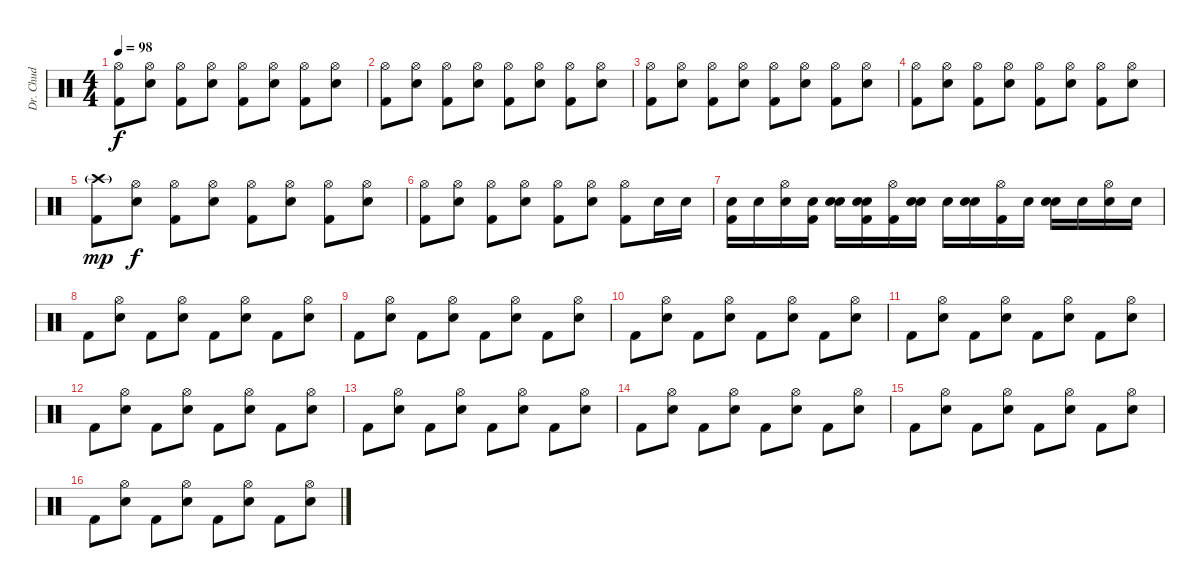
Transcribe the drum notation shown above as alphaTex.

\track ("Dr. Chud" "Dr. Chud") {instrument percussion}
\staff {score}
\articulation defaults
\ts (4 4)
\tempo 98
\clef neutral
\ks c
("Hi-Hat (open)" "Kick (hit) 2").8{dy f} ("Hi-Hat (open)" "Snare (hit) 2").8 ("Hi-Hat (open)" "Kick (hit) 2").8 ("Hi-Hat (open)" "Snare (hit) 2").8 ("Hi-Hat (open)" "Kick (hit) 2").8 ("Hi-Hat (open)" "Snare (hit) 2").8 ("Hi-Hat (open)" "Kick (hit) 2").8 ("Hi-Hat (open)" "Snare (hit) 2").8 |
("Hi-Hat (open)" "Kick (hit) 2").8 ("Hi-Hat (open)" "Snare (hit) 2").8 ("Hi-Hat (open)" "Kick (hit) 2").8 ("Hi-Hat (open)" "Snare (hit) 2").8 ("Hi-Hat (open)" "Kick (hit) 2").8 ("Hi-Hat (open)" "Snare (hit) 2").8 ("Hi-Hat (open)" "Kick (hit) 2").8 ("Hi-Hat (open)" "Snare (hit) 2").8 |
("Hi-Hat (open)" "Kick (hit) 2").8 ("Hi-Hat (open)" "Snare (hit) 2").8 ("Hi-Hat (open)" "Kick (hit) 2").8 ("Hi-Hat (open)" "Snare (hit) 2").8 ("Hi-Hat (open)" "Kick (hit) 2").8 ("Hi-Hat (open)" "Snare (hit) 2").8 ("Hi-Hat (open)" "Kick (hit) 2").8 ("Hi-Hat (open)" "Snare (hit) 2").8 |
("Hi-Hat (open)" "Kick (hit) 2").8 ("Hi-Hat (open)" "Snare (hit) 2").8 ("Hi-Hat (open)" "Kick (hit) 2").8 ("Hi-Hat (open)" "Snare (hit) 2").8 ("Hi-Hat (open)" "Kick (hit) 2").8 ("Hi-Hat (open)" "Snare (hit) 2").8 ("Hi-Hat (open)" "Kick (hit) 2").8 ("Hi-Hat (open)" "Snare (hit) 2").8 |
("Crash high (hit)"{g} "Kick (hit) 2").8{dy mp} ("Hi-Hat (open)" "Snare (hit) 2").8{dy f} ("Hi-Hat (open)" "Kick (hit) 2").8 ("Hi-Hat (open)" "Snare (hit) 2").8 ("Hi-Hat (open)" "Kick (hit) 2").8 ("Hi-Hat (open)" "Snare (hit) 2").8 ("Hi-Hat (open)" "Kick (hit) 2").8 ("Hi-Hat (open)" "Snare (hit) 2").8 |
("Hi-Hat (open)" "Kick (hit) 2").8 ("Hi-Hat (open)" "Snare (hit) 2").8 ("Hi-Hat (open)" "Kick (hit) 2").8 ("Hi-Hat (open)" "Snare (hit) 2").8 ("Hi-Hat (open)" "Kick (hit) 2").8 ("Hi-Hat (open)" "Snare (hit) 2").8 ("Hi-Hat (open)" "Kick (hit) 2").8 "Snare (hit) 2".16 "Snare (hit) 2".16 |
("Snare (hit)" "Kick (hit) 2").16 "Snare (hit)".16 ("Hi-Hat (open)" "Snare (hit) 2").16 ("Snare (hit)" "Kick (hit) 2").16 ("Snare (hit)" "Snare (hit) 2").16 ("Snare (hit)" "Snare (hit) 2" "Kick (hit) 2").16 ("Hi-Hat (open)" "Kick (hit) 2").16 ("Snare (hit)" "Snare (hit) 2").16 "Snare (hit)".16 ("Snare (hit)" "Snare (hit) 2").16 ("Hi-Hat (open)" "Kick (hit) 2").16 "Snare (hit)".16 ("Snare (hit)" "Snare (hit) 2").16 "Snare (hit)".16 ("Hi-Hat (open)" "Snare (hit) 2").16 "Snare (hit)".16 |
"Kick (hit) 2".8 ("Hi-Hat (open)" "Snare (hit) 2").8 "Kick (hit) 2".8 ("Hi-Hat (open)" "Snare (hit) 2").8 "Kick (hit) 2".8 ("Hi-Hat (open)" "Snare (hit) 2").8 "Kick (hit) 2".8 ("Hi-Hat (open)" "Snare (hit) 2").8 |
"Kick (hit) 2".8 ("Hi-Hat (open)" "Snare (hit) 2").8 "Kick (hit) 2".8 ("Hi-Hat (open)" "Snare (hit) 2").8 "Kick (hit) 2".8 ("Hi-Hat (open)" "Snare (hit) 2").8 "Kick (hit) 2".8 ("Hi-Hat (open)" "Snare (hit) 2").8 |
"Kick (hit) 2".8 ("Hi-Hat (open)" "Snare (hit) 2").8 "Kick (hit) 2".8 ("Hi-Hat (open)" "Snare (hit) 2").8 "Kick (hit) 2".8 ("Hi-Hat (open)" "Snare (hit) 2").8 "Kick (hit) 2".8 ("Hi-Hat (open)" "Snare (hit) 2").8 |
"Kick (hit) 2".8 ("Hi-Hat (open)" "Snare (hit) 2").8 "Kick (hit) 2".8 ("Hi-Hat (open)" "Snare (hit) 2").8 "Kick (hit) 2".8 ("Hi-Hat (open)" "Snare (hit) 2").8 "Kick (hit) 2".8 ("Hi-Hat (open)" "Snare (hit) 2").8 |
"Kick (hit) 2".8 ("Hi-Hat (open)" "Snare (hit) 2").8 "Kick (hit) 2".8 ("Hi-Hat (open)" "Snare (hit) 2").8 "Kick (hit) 2".8 ("Hi-Hat (open)" "Snare (hit) 2").8 "Kick (hit) 2".8 ("Hi-Hat (open)" "Snare (hit) 2").8 |
"Kick (hit) 2".8 ("Hi-Hat (open)" "Snare (hit) 2").8 "Kick (hit) 2".8 ("Hi-Hat (open)" "Snare (hit) 2").8 "Kick (hit) 2".8 ("Hi-Hat (open)" "Snare (hit) 2").8 "Kick (hit) 2".8 ("Hi-Hat (open)" "Snare (hit) 2").8 |
"Kick (hit) 2".8 ("Hi-Hat (open)" "Snare (hit) 2").8 "Kick (hit) 2".8 ("Hi-Hat (open)" "Snare (hit) 2").8 "Kick (hit) 2".8 ("Hi-Hat (open)" "Snare (hit) 2").8 "Kick (hit) 2".8 ("Hi-Hat (open)" "Snare (hit) 2").8 |
"Kick (hit) 2".8 ("Hi-Hat (open)" "Snare (hit) 2").8 "Kick (hit) 2".8 ("Hi-Hat (open)" "Snare (hit) 2").8 "Kick (hit) 2".8 ("Hi-Hat (open)" "Snare (hit) 2").8 "Kick (hit) 2".8 ("Hi-Hat (open)" "Snare (hit) 2").8 |
"Kick (hit) 2".8 ("Hi-Hat (open)" "Snare (hit) 2").8 "Kick (hit) 2".8 ("Hi-Hat (open)" "Snare (hit) 2").8 "Kick (hit) 2".8 ("Hi-Hat (open)" "Snare (hit) 2").8 "Kick (hit) 2".8 ("Hi-Hat (open)" "Snare (hit) 2").8
